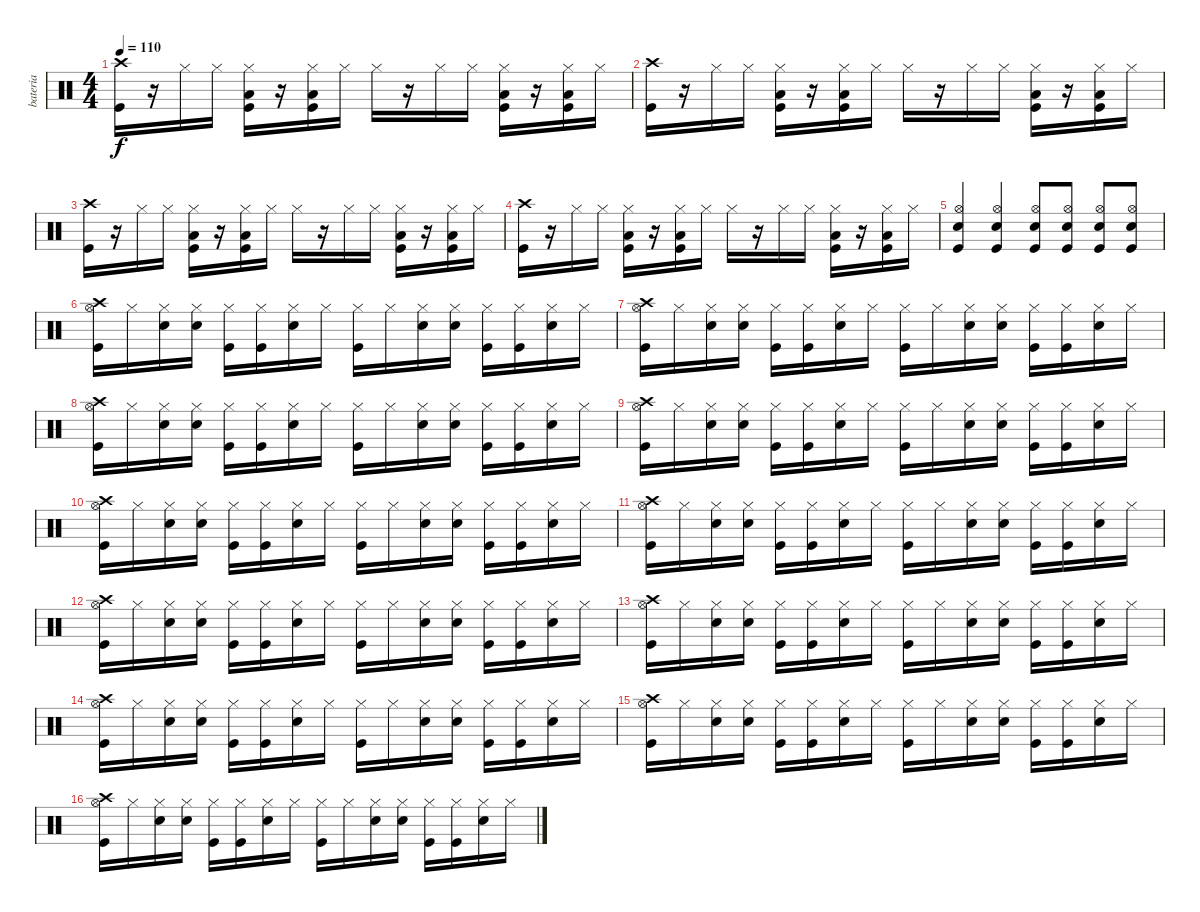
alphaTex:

\track ("bateria" "bateria") {instrument percussion}
\staff {score}
\articulation defaults
\ts (4 4)
\tempo 110
\clef neutral
\ks c
("Crash high (hit)" "Kick (hit)").16{dy f} r.16 "Hi-Hat (closed)".16 "Hi-Hat (closed)".16 ("Hi-Hat (closed)" "Low Floor Tom (hit)" "Kick (hit)").16 r.16 ("Hi-Hat (closed)" "Low Floor Tom (hit)" "Kick (hit)").16 "Hi-Hat (closed)".16 "Hi-Hat (closed)".16 r.16 "Hi-Hat (closed)".16 "Hi-Hat (closed)".16 ("Hi-Hat (closed)" "Low Floor Tom (hit)" "Kick (hit)").16 r.16 ("Hi-Hat (closed)" "Low Floor Tom (hit)" "Kick (hit)").16 "Hi-Hat (closed)".16 |
("Crash high (hit)" "Kick (hit)").16 r.16 "Hi-Hat (closed)".16 "Hi-Hat (closed)".16 ("Hi-Hat (closed)" "Low Floor Tom (hit)" "Kick (hit)").16 r.16 ("Hi-Hat (closed)" "Low Floor Tom (hit)" "Kick (hit)").16 "Hi-Hat (closed)".16 "Hi-Hat (closed)".16 r.16 "Hi-Hat (closed)".16 "Hi-Hat (closed)".16 ("Hi-Hat (closed)" "Low Floor Tom (hit)" "Kick (hit)").16 r.16 ("Hi-Hat (closed)" "Low Floor Tom (hit)" "Kick (hit)").16 "Hi-Hat (closed)".16 |
("Crash high (hit)" "Kick (hit)").16 r.16 "Hi-Hat (closed)".16 "Hi-Hat (closed)".16 ("Hi-Hat (closed)" "Low Floor Tom (hit)" "Kick (hit)").16 r.16 ("Hi-Hat (closed)" "Low Floor Tom (hit)" "Kick (hit)").16 "Hi-Hat (closed)".16 "Hi-Hat (closed)".16 r.16 "Hi-Hat (closed)".16 "Hi-Hat (closed)".16 ("Hi-Hat (closed)" "Low Floor Tom (hit)" "Kick (hit)").16 r.16 ("Hi-Hat (closed)" "Low Floor Tom (hit)" "Kick (hit)").16 "Hi-Hat (closed)".16 |
("Crash high (hit)" "Kick (hit)").16 r.16 "Hi-Hat (closed)".16 "Hi-Hat (closed)".16 ("Hi-Hat (closed)" "Low Floor Tom (hit)" "Kick (hit)").16 r.16 ("Hi-Hat (closed)" "Low Floor Tom (hit)" "Kick (hit)").16 "Hi-Hat (closed)".16 "Hi-Hat (closed)".16 r.16 "Hi-Hat (closed)".16 "Hi-Hat (closed)".16 ("Hi-Hat (closed)" "Low Floor Tom (hit)" "Kick (hit)").16 r.16 ("Hi-Hat (closed)" "Low Floor Tom (hit)" "Kick (hit)").16 "Hi-Hat (closed)".16 |
("Hi-Hat (open)" "Snare (hit) 2" "Kick (hit)").4 ("Hi-Hat (open)" "Snare (hit) 2" "Kick (hit)").4 ("Hi-Hat (open)" "Snare (hit) 2" "Kick (hit)").8 ("Hi-Hat (open)" "Snare (hit) 2" "Kick (hit)").8 ("Hi-Hat (open)" "Snare (hit) 2" "Kick (hit)").8 ("Hi-Hat (open)" "Snare (hit) 2" "Kick (hit)").8 |
("Crash high (hit)" "Hi-Hat (open)" "Kick (hit)").16 "Hi-Hat (closed)".16 ("Hi-Hat (closed)" "Snare (hit) 2").16 ("Hi-Hat (closed)" "Snare (hit) 2").16 ("Hi-Hat (closed)" "Kick (hit)").16 ("Hi-Hat (closed)" "Kick (hit)").16 ("Hi-Hat (closed)" "Snare (hit) 2").16 "Hi-Hat (closed)".16 ("Hi-Hat (closed)" "Kick (hit)").16 "Hi-Hat (closed)".16 ("Hi-Hat (closed)" "Snare (hit) 2").16 ("Hi-Hat (closed)" "Snare (hit) 2").16 ("Hi-Hat (closed)" "Kick (hit)").16 ("Hi-Hat (closed)" "Kick (hit)").16 ("Hi-Hat (closed)" "Snare (hit) 2").16 "Hi-Hat (closed)".16 |
("Crash high (hit)" "Hi-Hat (open)" "Kick (hit)").16 "Hi-Hat (closed)".16 ("Hi-Hat (closed)" "Snare (hit) 2").16 ("Hi-Hat (closed)" "Snare (hit) 2").16 ("Hi-Hat (closed)" "Kick (hit)").16 ("Hi-Hat (closed)" "Kick (hit)").16 ("Hi-Hat (closed)" "Snare (hit) 2").16 "Hi-Hat (closed)".16 ("Hi-Hat (closed)" "Kick (hit)").16 "Hi-Hat (closed)".16 ("Hi-Hat (closed)" "Snare (hit) 2").16 ("Hi-Hat (closed)" "Snare (hit) 2").16 ("Hi-Hat (closed)" "Kick (hit)").16 ("Hi-Hat (closed)" "Kick (hit)").16 ("Hi-Hat (closed)" "Snare (hit) 2").16 "Hi-Hat (closed)".16 |
("Crash high (hit)" "Hi-Hat (open)" "Kick (hit)").16 "Hi-Hat (closed)".16 ("Hi-Hat (closed)" "Snare (hit) 2").16 ("Hi-Hat (closed)" "Snare (hit) 2").16 ("Hi-Hat (closed)" "Kick (hit)").16 ("Hi-Hat (closed)" "Kick (hit)").16 ("Hi-Hat (closed)" "Snare (hit) 2").16 "Hi-Hat (closed)".16 ("Hi-Hat (closed)" "Kick (hit)").16 "Hi-Hat (closed)".16 ("Hi-Hat (closed)" "Snare (hit) 2").16 ("Hi-Hat (closed)" "Snare (hit) 2").16 ("Hi-Hat (closed)" "Kick (hit)").16 ("Hi-Hat (closed)" "Kick (hit)").16 ("Hi-Hat (closed)" "Snare (hit) 2").16 "Hi-Hat (closed)".16 |
("Crash high (hit)" "Hi-Hat (open)" "Kick (hit)").16 "Hi-Hat (closed)".16 ("Hi-Hat (closed)" "Snare (hit) 2").16 ("Hi-Hat (closed)" "Snare (hit) 2").16 ("Hi-Hat (closed)" "Kick (hit)").16 ("Hi-Hat (closed)" "Kick (hit)").16 ("Hi-Hat (closed)" "Snare (hit) 2").16 "Hi-Hat (closed)".16 ("Hi-Hat (closed)" "Kick (hit)").16 "Hi-Hat (closed)".16 ("Hi-Hat (closed)" "Snare (hit) 2").16 ("Hi-Hat (closed)" "Snare (hit) 2").16 ("Hi-Hat (closed)" "Kick (hit)").16 ("Hi-Hat (closed)" "Kick (hit)").16 ("Hi-Hat (closed)" "Snare (hit) 2").16 "Hi-Hat (closed)".16 |
("Crash high (hit)" "Hi-Hat (open)" "Kick (hit)").16 "Hi-Hat (closed)".16 ("Hi-Hat (closed)" "Snare (hit) 2").16 ("Hi-Hat (closed)" "Snare (hit) 2").16 ("Hi-Hat (closed)" "Kick (hit)").16 ("Hi-Hat (closed)" "Kick (hit)").16 ("Hi-Hat (closed)" "Snare (hit) 2").16 "Hi-Hat (closed)".16 ("Hi-Hat (closed)" "Kick (hit)").16 "Hi-Hat (closed)".16 ("Hi-Hat (closed)" "Snare (hit) 2").16 ("Hi-Hat (closed)" "Snare (hit) 2").16 ("Hi-Hat (closed)" "Kick (hit)").16 ("Hi-Hat (closed)" "Kick (hit)").16 ("Hi-Hat (closed)" "Snare (hit) 2").16 "Hi-Hat (closed)".16 |
("Crash high (hit)" "Hi-Hat (open)" "Kick (hit)").16 "Hi-Hat (closed)".16 ("Hi-Hat (closed)" "Snare (hit) 2").16 ("Hi-Hat (closed)" "Snare (hit) 2").16 ("Hi-Hat (closed)" "Kick (hit)").16 ("Hi-Hat (closed)" "Kick (hit)").16 ("Hi-Hat (closed)" "Snare (hit) 2").16 "Hi-Hat (closed)".16 ("Hi-Hat (closed)" "Kick (hit)").16 "Hi-Hat (closed)".16 ("Hi-Hat (closed)" "Snare (hit) 2").16 ("Hi-Hat (closed)" "Snare (hit) 2").16 ("Hi-Hat (closed)" "Kick (hit)").16 ("Hi-Hat (closed)" "Kick (hit)").16 ("Hi-Hat (closed)" "Snare (hit) 2").16 "Hi-Hat (closed)".16 |
("Crash high (hit)" "Hi-Hat (open)" "Kick (hit)").16 "Hi-Hat (closed)".16 ("Hi-Hat (closed)" "Snare (hit) 2").16 ("Hi-Hat (closed)" "Snare (hit) 2").16 ("Hi-Hat (closed)" "Kick (hit)").16 ("Hi-Hat (closed)" "Kick (hit)").16 ("Hi-Hat (closed)" "Snare (hit) 2").16 "Hi-Hat (closed)".16 ("Hi-Hat (closed)" "Kick (hit)").16 "Hi-Hat (closed)".16 ("Hi-Hat (closed)" "Snare (hit) 2").16 ("Hi-Hat (closed)" "Snare (hit) 2").16 ("Hi-Hat (closed)" "Kick (hit)").16 ("Hi-Hat (closed)" "Kick (hit)").16 ("Hi-Hat (closed)" "Snare (hit) 2").16 "Hi-Hat (closed)".16 |
("Crash high (hit)" "Hi-Hat (open)" "Kick (hit)").16 "Hi-Hat (closed)".16 ("Hi-Hat (closed)" "Snare (hit) 2").16 ("Hi-Hat (closed)" "Snare (hit) 2").16 ("Hi-Hat (closed)" "Kick (hit)").16 ("Hi-Hat (closed)" "Kick (hit)").16 ("Hi-Hat (closed)" "Snare (hit) 2").16 "Hi-Hat (closed)".16 ("Hi-Hat (closed)" "Kick (hit)").16 "Hi-Hat (closed)".16 ("Hi-Hat (closed)" "Snare (hit) 2").16 ("Hi-Hat (closed)" "Snare (hit) 2").16 ("Hi-Hat (closed)" "Kick (hit)").16 ("Hi-Hat (closed)" "Kick (hit)").16 ("Hi-Hat (closed)" "Snare (hit) 2").16 "Hi-Hat (closed)".16 |
("Crash high (hit)" "Hi-Hat (open)" "Kick (hit)").16 "Hi-Hat (closed)".16 ("Hi-Hat (closed)" "Snare (hit) 2").16 ("Hi-Hat (closed)" "Snare (hit) 2").16 ("Hi-Hat (closed)" "Kick (hit)").16 ("Hi-Hat (closed)" "Kick (hit)").16 ("Hi-Hat (closed)" "Snare (hit) 2").16 "Hi-Hat (closed)".16 ("Hi-Hat (closed)" "Kick (hit)").16 "Hi-Hat (closed)".16 ("Hi-Hat (closed)" "Snare (hit) 2").16 ("Hi-Hat (closed)" "Snare (hit) 2").16 ("Hi-Hat (closed)" "Kick (hit)").16 ("Hi-Hat (closed)" "Kick (hit)").16 ("Hi-Hat (closed)" "Snare (hit) 2").16 "Hi-Hat (closed)".16 |
("Crash high (hit)" "Hi-Hat (open)" "Kick (hit)").16 "Hi-Hat (closed)".16 ("Hi-Hat (closed)" "Snare (hit) 2").16 ("Hi-Hat (closed)" "Snare (hit) 2").16 ("Hi-Hat (closed)" "Kick (hit)").16 ("Hi-Hat (closed)" "Kick (hit)").16 ("Hi-Hat (closed)" "Snare (hit) 2").16 "Hi-Hat (closed)".16 ("Hi-Hat (closed)" "Kick (hit)").16 "Hi-Hat (closed)".16 ("Hi-Hat (closed)" "Snare (hit) 2").16 ("Hi-Hat (closed)" "Snare (hit) 2").16 ("Hi-Hat (closed)" "Kick (hit)").16 ("Hi-Hat (closed)" "Kick (hit)").16 ("Hi-Hat (closed)" "Snare (hit) 2").16 "Hi-Hat (closed)".16 |
("Crash high (hit)" "Hi-Hat (open)" "Kick (hit)").16 "Hi-Hat (closed)".16 ("Hi-Hat (closed)" "Snare (hit) 2").16 ("Hi-Hat (closed)" "Snare (hit) 2").16 ("Hi-Hat (closed)" "Kick (hit)").16 ("Hi-Hat (closed)" "Kick (hit)").16 ("Hi-Hat (closed)" "Snare (hit) 2").16 "Hi-Hat (closed)".16 ("Hi-Hat (closed)" "Kick (hit)").16 "Hi-Hat (closed)".16 ("Hi-Hat (closed)" "Snare (hit) 2").16 ("Hi-Hat (closed)" "Snare (hit) 2").16 ("Hi-Hat (closed)" "Kick (hit)").16 ("Hi-Hat (closed)" "Kick (hit)").16 ("Hi-Hat (closed)" "Snare (hit) 2").16 "Hi-Hat (closed)".16
